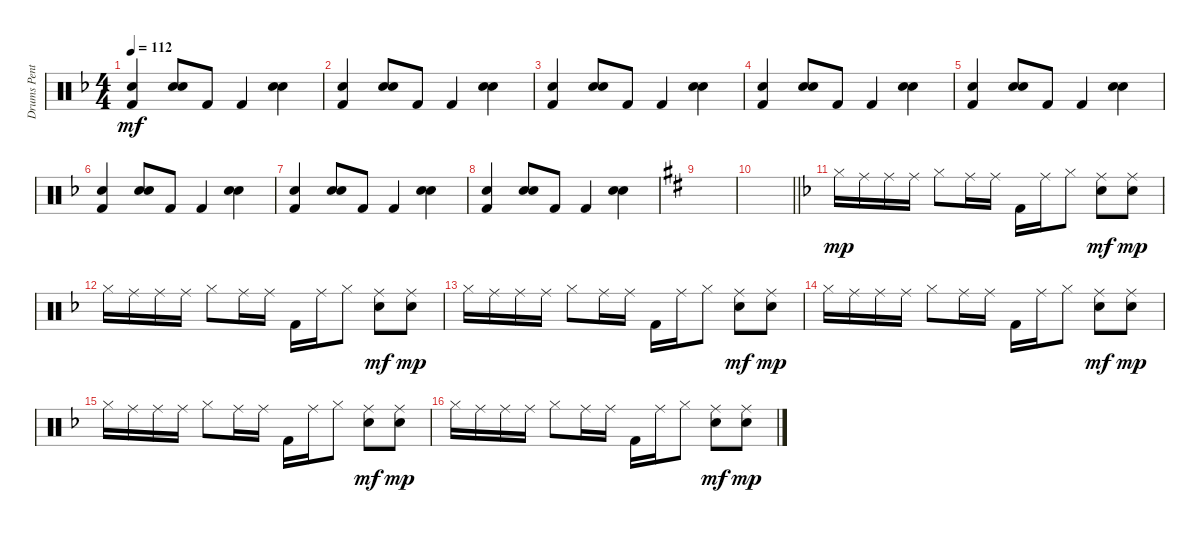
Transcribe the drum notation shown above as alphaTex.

\track ("Drums Pentti Glan" "Drums Pent") {instrument percussion}
\staff {score}
\articulation defaults
\ts (4 4)
\tempo 112
\clef neutral
\ks f
("Hand Clap (hit)" "Kick (hit) 2").4{dy mf} ("Electric Snare (hit)" "Snare (hit) 2").8 "Kick (hit) 2".8 "Kick (hit) 2".4 ("Electric Snare (hit)" "Snare (hit) 2").4 |
("Hand Clap (hit)" "Kick (hit) 2").4 ("Electric Snare (hit)" "Snare (hit) 2").8 "Kick (hit) 2".8 "Kick (hit) 2".4 ("Electric Snare (hit)" "Snare (hit) 2").4 |
("Hand Clap (hit)" "Kick (hit) 2").4 ("Electric Snare (hit)" "Snare (hit) 2").8 "Kick (hit) 2".8 "Kick (hit) 2".4 ("Electric Snare (hit)" "Snare (hit) 2").4 |
("Hand Clap (hit)" "Kick (hit) 2").4 ("Electric Snare (hit)" "Snare (hit) 2").8 "Kick (hit) 2".8 "Kick (hit) 2".4 ("Electric Snare (hit)" "Snare (hit) 2").4 |
("Hand Clap (hit)" "Kick (hit) 2").4 ("Electric Snare (hit)" "Snare (hit) 2").8 "Kick (hit) 2".8 "Kick (hit) 2".4 ("Electric Snare (hit)" "Snare (hit) 2").4 |
("Hand Clap (hit)" "Kick (hit) 2").4 ("Electric Snare (hit)" "Snare (hit) 2").8 "Kick (hit) 2".8 "Kick (hit) 2".4 ("Electric Snare (hit)" "Snare (hit) 2").4 |
("Hand Clap (hit)" "Kick (hit) 2").4 ("Electric Snare (hit)" "Snare (hit) 2").8 "Kick (hit) 2".8 "Kick (hit) 2".4 ("Electric Snare (hit)" "Snare (hit) 2").4 |
("Hand Clap (hit)" "Kick (hit) 2").4 ("Electric Snare (hit)" "Snare (hit) 2").8 "Kick (hit) 2".8 "Kick (hit) 2".4 ("Electric Snare (hit)" "Snare (hit) 2").4 |
\ks d
|
\barLineRight lightlight
|
\ks f "Hi-Hat (closed)".16{dy mp} "Ride (middle)".16 "Ride (middle)".16 "Ride (middle)".16 "Hi-Hat (closed)".8 "Ride (middle)".16 "Ride (middle)".16 "Kick (hit) 2".16 "Ride (middle)".16 "Hi-Hat (closed)".8
("Hand Clap (hit)" "Ride (middle)").8{dy mf} ("Hand Clap (hit)" "Ride (middle)").8{dy mp} |
"Hi-Hat (closed)".16 "Ride (middle)".16 "Ride (middle)".16 "Ride (middle)".16 "Hi-Hat (closed)".8 "Ride (middle)".16 "Ride (middle)".16 "Kick (hit) 2".16 "Ride (middle)".16 "Hi-Hat (closed)".8 ("Hand Clap (hit)" "Ride (middle)").8{dy mf} ("Hand Clap (hit)" "Ride (middle)").8{dy mp} |
"Hi-Hat (closed)".16 "Ride (middle)".16 "Ride (middle)".16 "Ride (middle)".16 "Hi-Hat (closed)".8 "Ride (middle)".16 "Ride (middle)".16 "Kick (hit) 2".16 "Ride (middle)".16 "Hi-Hat (closed)".8 ("Hand Clap (hit)" "Ride (middle)").8{dy mf} ("Hand Clap (hit)" "Ride (middle)").8{dy mp} |
"Hi-Hat (closed)".16 "Ride (middle)".16 "Ride (middle)".16 "Ride (middle)".16 "Hi-Hat (closed)".8 "Ride (middle)".16 "Ride (middle)".16 "Kick (hit) 2".16 "Ride (middle)".16 "Hi-Hat (closed)".8 ("Hand Clap (hit)" "Ride (middle)").8{dy mf} ("Hand Clap (hit)" "Ride (middle)").8{dy mp} |
"Hi-Hat (closed)".16 "Ride (middle)".16 "Ride (middle)".16 "Ride (middle)".16 "Hi-Hat (closed)".8 "Ride (middle)".16 "Ride (middle)".16 "Kick (hit) 2".16 "Ride (middle)".16 "Hi-Hat (closed)".8 ("Hand Clap (hit)" "Ride (middle)").8{dy mf} ("Hand Clap (hit)" "Ride (middle)").8{dy mp} |
"Hi-Hat (closed)".16 "Ride (middle)".16 "Ride (middle)".16 "Ride (middle)".16 "Hi-Hat (closed)".8 "Ride (middle)".16 "Ride (middle)".16 "Kick (hit) 2".16 "Ride (middle)".16 "Hi-Hat (closed)".8 ("Hand Clap (hit)" "Ride (middle)").8{dy mf} ("Hand Clap (hit)" "Ride (middle)").8{dy mp}
